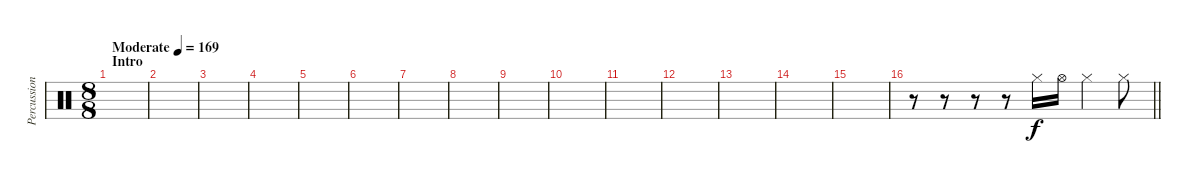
\track ("Percussion" "Percussion") {instrument percussion}
\staff {score}
\articulation defaults
\ts (8 8)
\section ("" "Intro")
\tempo (169 "Moderate")
\clef neutral
\ks c
|
|
|
|
|
|
|
|
|
|
|
|
|
|
|
\barLineRight lightlight
r.8 r.8 r.8 r.8 "Hi-Hat (closed)".16 "Hi-Hat (open)".16 "Hi-Hat (closed)".4 "Hi-Hat (closed)".8
